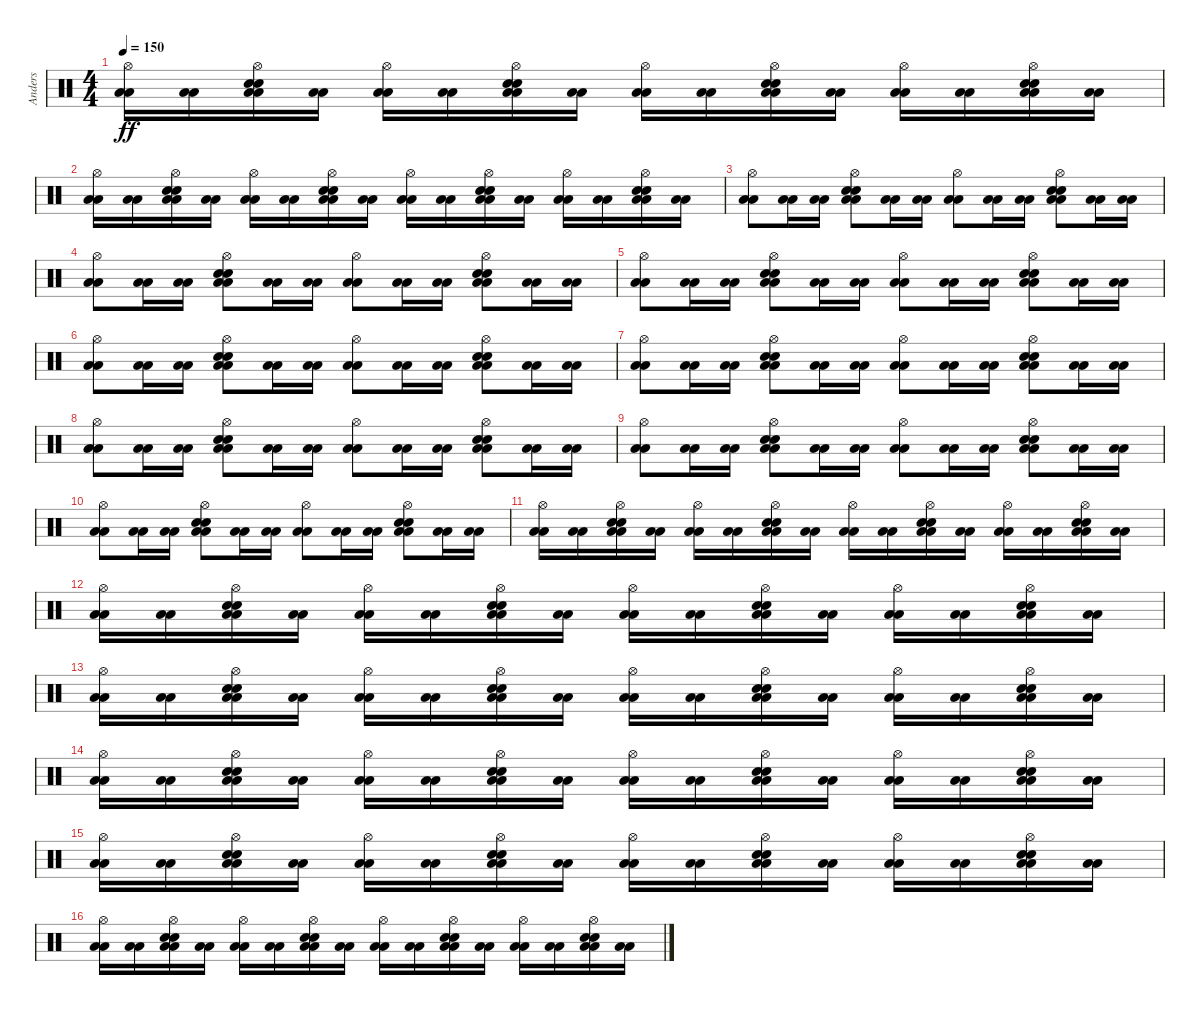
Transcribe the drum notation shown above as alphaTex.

\track ("Anders" "Anders") {instrument percussion}
\staff {score}
\articulation defaults
\ts (4 4)
\tempo 150
\clef neutral
\ks c
("Hi-Hat (open)" "Low Floor Tom (hit)" "Low Floor Tom (hit)").16{dy ff} ("Low Floor Tom (hit)" "Low Floor Tom (hit)").16 ("Hi-Hat (open)" "Electric Snare (hit)" "Electric Snare (hit)" "Low Floor Tom (hit)" "Low Floor Tom (hit)").16 ("Low Floor Tom (hit)" "Low Floor Tom (hit)").16 ("Hi-Hat (open)" "Low Floor Tom (hit)" "Low Floor Tom (hit)").16 ("Low Floor Tom (hit)" "Low Floor Tom (hit)").16 ("Hi-Hat (open)" "Electric Snare (hit)" "Electric Snare (hit)" "Low Floor Tom (hit)" "Low Floor Tom (hit)").16 ("Low Floor Tom (hit)" "Low Floor Tom (hit)").16 ("Hi-Hat (open)" "Low Floor Tom (hit)" "Low Floor Tom (hit)").16 ("Low Floor Tom (hit)" "Low Floor Tom (hit)").16 ("Hi-Hat (open)" "Electric Snare (hit)" "Electric Snare (hit)" "Low Floor Tom (hit)" "Low Floor Tom (hit)").16 ("Low Floor Tom (hit)" "Low Floor Tom (hit)").16 ("Hi-Hat (open)" "Low Floor Tom (hit)" "Low Floor Tom (hit)").16 ("Low Floor Tom (hit)" "Low Floor Tom (hit)").16 ("Hi-Hat (open)" "Electric Snare (hit)" "Electric Snare (hit)" "Low Floor Tom (hit)" "Low Floor Tom (hit)").16 ("Low Floor Tom (hit)" "Low Floor Tom (hit)").16 |
("Hi-Hat (open)" "Low Floor Tom (hit)" "Low Floor Tom (hit)").16 ("Low Floor Tom (hit)" "Low Floor Tom (hit)").16 ("Hi-Hat (open)" "Electric Snare (hit)" "Electric Snare (hit)" "Low Floor Tom (hit)" "Low Floor Tom (hit)").16 ("Low Floor Tom (hit)" "Low Floor Tom (hit)").16 ("Hi-Hat (open)" "Low Floor Tom (hit)" "Low Floor Tom (hit)").16 ("Low Floor Tom (hit)" "Low Floor Tom (hit)").16 ("Hi-Hat (open)" "Electric Snare (hit)" "Electric Snare (hit)" "Low Floor Tom (hit)" "Low Floor Tom (hit)").16 ("Low Floor Tom (hit)" "Low Floor Tom (hit)").16 ("Hi-Hat (open)" "Low Floor Tom (hit)" "Low Floor Tom (hit)").16 ("Low Floor Tom (hit)" "Low Floor Tom (hit)").16 ("Hi-Hat (open)" "Electric Snare (hit)" "Electric Snare (hit)" "Low Floor Tom (hit)" "Low Floor Tom (hit)").16 ("Low Floor Tom (hit)" "Low Floor Tom (hit)").16 ("Hi-Hat (open)" "Low Floor Tom (hit)" "Low Floor Tom (hit)").16 ("Low Floor Tom (hit)" "Low Floor Tom (hit)").16 ("Hi-Hat (open)" "Electric Snare (hit)" "Electric Snare (hit)" "Low Floor Tom (hit)" "Low Floor Tom (hit)").16 ("Low Floor Tom (hit)" "Low Floor Tom (hit)").16 |
("Hi-Hat (open)" "Low Floor Tom (hit)" "Low Floor Tom (hit)").8 ("Low Floor Tom (hit)" "Low Floor Tom (hit)").16 ("Low Floor Tom (hit)" "Low Floor Tom (hit)").16 ("Hi-Hat (open)" "Electric Snare (hit)" "Electric Snare (hit)" "Low Floor Tom (hit)" "Low Floor Tom (hit)").8 ("Low Floor Tom (hit)" "Low Floor Tom (hit)").16 ("Low Floor Tom (hit)" "Low Floor Tom (hit)").16 ("Hi-Hat (open)" "Low Floor Tom (hit)" "Low Floor Tom (hit)").8 ("Low Floor Tom (hit)" "Low Floor Tom (hit)").16 ("Low Floor Tom (hit)" "Low Floor Tom (hit)").16 ("Hi-Hat (open)" "Electric Snare (hit)" "Electric Snare (hit)" "Low Floor Tom (hit)" "Low Floor Tom (hit)").8 ("Low Floor Tom (hit)" "Low Floor Tom (hit)").16 ("Low Floor Tom (hit)" "Low Floor Tom (hit)").16 |
("Hi-Hat (open)" "Low Floor Tom (hit)" "Low Floor Tom (hit)").8 ("Low Floor Tom (hit)" "Low Floor Tom (hit)").16 ("Low Floor Tom (hit)" "Low Floor Tom (hit)").16 ("Hi-Hat (open)" "Electric Snare (hit)" "Electric Snare (hit)" "Low Floor Tom (hit)" "Low Floor Tom (hit)").8 ("Low Floor Tom (hit)" "Low Floor Tom (hit)").16 ("Low Floor Tom (hit)" "Low Floor Tom (hit)").16 ("Hi-Hat (open)" "Low Floor Tom (hit)" "Low Floor Tom (hit)").8 ("Low Floor Tom (hit)" "Low Floor Tom (hit)").16 ("Low Floor Tom (hit)" "Low Floor Tom (hit)").16 ("Hi-Hat (open)" "Electric Snare (hit)" "Electric Snare (hit)" "Low Floor Tom (hit)" "Low Floor Tom (hit)").8 ("Low Floor Tom (hit)" "Low Floor Tom (hit)").16 ("Low Floor Tom (hit)" "Low Floor Tom (hit)").16 |
("Hi-Hat (open)" "Low Floor Tom (hit)" "Low Floor Tom (hit)").8 ("Low Floor Tom (hit)" "Low Floor Tom (hit)").16 ("Low Floor Tom (hit)" "Low Floor Tom (hit)").16 ("Hi-Hat (open)" "Electric Snare (hit)" "Electric Snare (hit)" "Low Floor Tom (hit)" "Low Floor Tom (hit)").8 ("Low Floor Tom (hit)" "Low Floor Tom (hit)").16 ("Low Floor Tom (hit)" "Low Floor Tom (hit)").16 ("Hi-Hat (open)" "Low Floor Tom (hit)" "Low Floor Tom (hit)").8 ("Low Floor Tom (hit)" "Low Floor Tom (hit)").16 ("Low Floor Tom (hit)" "Low Floor Tom (hit)").16 ("Hi-Hat (open)" "Electric Snare (hit)" "Electric Snare (hit)" "Low Floor Tom (hit)" "Low Floor Tom (hit)").8 ("Low Floor Tom (hit)" "Low Floor Tom (hit)").16 ("Low Floor Tom (hit)" "Low Floor Tom (hit)").16 |
("Hi-Hat (open)" "Low Floor Tom (hit)" "Low Floor Tom (hit)").8 ("Low Floor Tom (hit)" "Low Floor Tom (hit)").16 ("Low Floor Tom (hit)" "Low Floor Tom (hit)").16 ("Hi-Hat (open)" "Electric Snare (hit)" "Electric Snare (hit)" "Low Floor Tom (hit)" "Low Floor Tom (hit)").8 ("Low Floor Tom (hit)" "Low Floor Tom (hit)").16 ("Low Floor Tom (hit)" "Low Floor Tom (hit)").16 ("Hi-Hat (open)" "Low Floor Tom (hit)" "Low Floor Tom (hit)").8 ("Low Floor Tom (hit)" "Low Floor Tom (hit)").16 ("Low Floor Tom (hit)" "Low Floor Tom (hit)").16 ("Hi-Hat (open)" "Electric Snare (hit)" "Electric Snare (hit)" "Low Floor Tom (hit)" "Low Floor Tom (hit)").8 ("Low Floor Tom (hit)" "Low Floor Tom (hit)").16 ("Low Floor Tom (hit)" "Low Floor Tom (hit)").16 |
("Hi-Hat (open)" "Low Floor Tom (hit)" "Low Floor Tom (hit)").8 ("Low Floor Tom (hit)" "Low Floor Tom (hit)").16 ("Low Floor Tom (hit)" "Low Floor Tom (hit)").16 ("Hi-Hat (open)" "Electric Snare (hit)" "Electric Snare (hit)" "Low Floor Tom (hit)" "Low Floor Tom (hit)").8 ("Low Floor Tom (hit)" "Low Floor Tom (hit)").16 ("Low Floor Tom (hit)" "Low Floor Tom (hit)").16 ("Hi-Hat (open)" "Low Floor Tom (hit)" "Low Floor Tom (hit)").8 ("Low Floor Tom (hit)" "Low Floor Tom (hit)").16 ("Low Floor Tom (hit)" "Low Floor Tom (hit)").16 ("Hi-Hat (open)" "Electric Snare (hit)" "Electric Snare (hit)" "Low Floor Tom (hit)" "Low Floor Tom (hit)").8 ("Low Floor Tom (hit)" "Low Floor Tom (hit)").16 ("Low Floor Tom (hit)" "Low Floor Tom (hit)").16 |
("Hi-Hat (open)" "Low Floor Tom (hit)" "Low Floor Tom (hit)").8 ("Low Floor Tom (hit)" "Low Floor Tom (hit)").16 ("Low Floor Tom (hit)" "Low Floor Tom (hit)").16 ("Hi-Hat (open)" "Electric Snare (hit)" "Electric Snare (hit)" "Low Floor Tom (hit)" "Low Floor Tom (hit)").8 ("Low Floor Tom (hit)" "Low Floor Tom (hit)").16 ("Low Floor Tom (hit)" "Low Floor Tom (hit)").16 ("Hi-Hat (open)" "Low Floor Tom (hit)" "Low Floor Tom (hit)").8 ("Low Floor Tom (hit)" "Low Floor Tom (hit)").16 ("Low Floor Tom (hit)" "Low Floor Tom (hit)").16 ("Hi-Hat (open)" "Electric Snare (hit)" "Electric Snare (hit)" "Low Floor Tom (hit)" "Low Floor Tom (hit)").8 ("Low Floor Tom (hit)" "Low Floor Tom (hit)").16 ("Low Floor Tom (hit)" "Low Floor Tom (hit)").16 |
("Hi-Hat (open)" "Low Floor Tom (hit)" "Low Floor Tom (hit)").8 ("Low Floor Tom (hit)" "Low Floor Tom (hit)").16 ("Low Floor Tom (hit)" "Low Floor Tom (hit)").16 ("Hi-Hat (open)" "Electric Snare (hit)" "Electric Snare (hit)" "Low Floor Tom (hit)" "Low Floor Tom (hit)").8 ("Low Floor Tom (hit)" "Low Floor Tom (hit)").16 ("Low Floor Tom (hit)" "Low Floor Tom (hit)").16 ("Hi-Hat (open)" "Low Floor Tom (hit)" "Low Floor Tom (hit)").8 ("Low Floor Tom (hit)" "Low Floor Tom (hit)").16 ("Low Floor Tom (hit)" "Low Floor Tom (hit)").16 ("Hi-Hat (open)" "Electric Snare (hit)" "Electric Snare (hit)" "Low Floor Tom (hit)" "Low Floor Tom (hit)").8 ("Low Floor Tom (hit)" "Low Floor Tom (hit)").16 ("Low Floor Tom (hit)" "Low Floor Tom (hit)").16 |
("Hi-Hat (open)" "Low Floor Tom (hit)" "Low Floor Tom (hit)").8 ("Low Floor Tom (hit)" "Low Floor Tom (hit)").16 ("Low Floor Tom (hit)" "Low Floor Tom (hit)").16 ("Hi-Hat (open)" "Electric Snare (hit)" "Electric Snare (hit)" "Low Floor Tom (hit)" "Low Floor Tom (hit)").8 ("Low Floor Tom (hit)" "Low Floor Tom (hit)").16 ("Low Floor Tom (hit)" "Low Floor Tom (hit)").16 ("Hi-Hat (open)" "Low Floor Tom (hit)" "Low Floor Tom (hit)").8 ("Low Floor Tom (hit)" "Low Floor Tom (hit)").16 ("Low Floor Tom (hit)" "Low Floor Tom (hit)").16 ("Hi-Hat (open)" "Electric Snare (hit)" "Electric Snare (hit)" "Low Floor Tom (hit)" "Low Floor Tom (hit)").8 ("Low Floor Tom (hit)" "Low Floor Tom (hit)").16 ("Low Floor Tom (hit)" "Low Floor Tom (hit)").16 |
("Hi-Hat (open)" "Low Floor Tom (hit)" "Low Floor Tom (hit)").16 ("Low Floor Tom (hit)" "Low Floor Tom (hit)").16 ("Hi-Hat (open)" "Electric Snare (hit)" "Electric Snare (hit)" "Low Floor Tom (hit)" "Low Floor Tom (hit)").16 ("Low Floor Tom (hit)" "Low Floor Tom (hit)").16 ("Hi-Hat (open)" "Low Floor Tom (hit)" "Low Floor Tom (hit)").16 ("Low Floor Tom (hit)" "Low Floor Tom (hit)").16 ("Hi-Hat (open)" "Electric Snare (hit)" "Electric Snare (hit)" "Low Floor Tom (hit)" "Low Floor Tom (hit)").16 ("Low Floor Tom (hit)" "Low Floor Tom (hit)").16 ("Hi-Hat (open)" "Low Floor Tom (hit)" "Low Floor Tom (hit)").16 ("Low Floor Tom (hit)" "Low Floor Tom (hit)").16 ("Hi-Hat (open)" "Electric Snare (hit)" "Electric Snare (hit)" "Low Floor Tom (hit)" "Low Floor Tom (hit)").16 ("Low Floor Tom (hit)" "Low Floor Tom (hit)").16 ("Hi-Hat (open)" "Low Floor Tom (hit)" "Low Floor Tom (hit)").16 ("Low Floor Tom (hit)" "Low Floor Tom (hit)").16 ("Hi-Hat (open)" "Electric Snare (hit)" "Electric Snare (hit)" "Low Floor Tom (hit)" "Low Floor Tom (hit)").16 ("Low Floor Tom (hit)" "Low Floor Tom (hit)").16 |
("Hi-Hat (open)" "Low Floor Tom (hit)" "Low Floor Tom (hit)").16 ("Low Floor Tom (hit)" "Low Floor Tom (hit)").16 ("Hi-Hat (open)" "Electric Snare (hit)" "Electric Snare (hit)" "Low Floor Tom (hit)" "Low Floor Tom (hit)").16 ("Low Floor Tom (hit)" "Low Floor Tom (hit)").16 ("Hi-Hat (open)" "Low Floor Tom (hit)" "Low Floor Tom (hit)").16 ("Low Floor Tom (hit)" "Low Floor Tom (hit)").16 ("Hi-Hat (open)" "Electric Snare (hit)" "Electric Snare (hit)" "Low Floor Tom (hit)" "Low Floor Tom (hit)").16 ("Low Floor Tom (hit)" "Low Floor Tom (hit)").16 ("Hi-Hat (open)" "Low Floor Tom (hit)" "Low Floor Tom (hit)").16 ("Low Floor Tom (hit)" "Low Floor Tom (hit)").16 ("Hi-Hat (open)" "Electric Snare (hit)" "Electric Snare (hit)" "Low Floor Tom (hit)" "Low Floor Tom (hit)").16 ("Low Floor Tom (hit)" "Low Floor Tom (hit)").16 ("Hi-Hat (open)" "Low Floor Tom (hit)" "Low Floor Tom (hit)").16 ("Low Floor Tom (hit)" "Low Floor Tom (hit)").16 ("Hi-Hat (open)" "Electric Snare (hit)" "Electric Snare (hit)" "Low Floor Tom (hit)" "Low Floor Tom (hit)").16 ("Low Floor Tom (hit)" "Low Floor Tom (hit)").16 |
("Hi-Hat (open)" "Low Floor Tom (hit)" "Low Floor Tom (hit)").16 ("Low Floor Tom (hit)" "Low Floor Tom (hit)").16 ("Hi-Hat (open)" "Electric Snare (hit)" "Electric Snare (hit)" "Low Floor Tom (hit)" "Low Floor Tom (hit)").16 ("Low Floor Tom (hit)" "Low Floor Tom (hit)").16 ("Hi-Hat (open)" "Low Floor Tom (hit)" "Low Floor Tom (hit)").16 ("Low Floor Tom (hit)" "Low Floor Tom (hit)").16 ("Hi-Hat (open)" "Electric Snare (hit)" "Electric Snare (hit)" "Low Floor Tom (hit)" "Low Floor Tom (hit)").16 ("Low Floor Tom (hit)" "Low Floor Tom (hit)").16 ("Hi-Hat (open)" "Low Floor Tom (hit)" "Low Floor Tom (hit)").16 ("Low Floor Tom (hit)" "Low Floor Tom (hit)").16 ("Hi-Hat (open)" "Electric Snare (hit)" "Electric Snare (hit)" "Low Floor Tom (hit)" "Low Floor Tom (hit)").16 ("Low Floor Tom (hit)" "Low Floor Tom (hit)").16 ("Hi-Hat (open)" "Low Floor Tom (hit)" "Low Floor Tom (hit)").16 ("Low Floor Tom (hit)" "Low Floor Tom (hit)").16 ("Hi-Hat (open)" "Electric Snare (hit)" "Electric Snare (hit)" "Low Floor Tom (hit)" "Low Floor Tom (hit)").16 ("Low Floor Tom (hit)" "Low Floor Tom (hit)").16 |
("Hi-Hat (open)" "Low Floor Tom (hit)" "Low Floor Tom (hit)").16 ("Low Floor Tom (hit)" "Low Floor Tom (hit)").16 ("Hi-Hat (open)" "Electric Snare (hit)" "Electric Snare (hit)" "Low Floor Tom (hit)" "Low Floor Tom (hit)").16 ("Low Floor Tom (hit)" "Low Floor Tom (hit)").16 ("Hi-Hat (open)" "Low Floor Tom (hit)" "Low Floor Tom (hit)").16 ("Low Floor Tom (hit)" "Low Floor Tom (hit)").16 ("Hi-Hat (open)" "Electric Snare (hit)" "Electric Snare (hit)" "Low Floor Tom (hit)" "Low Floor Tom (hit)").16 ("Low Floor Tom (hit)" "Low Floor Tom (hit)").16 ("Hi-Hat (open)" "Low Floor Tom (hit)" "Low Floor Tom (hit)").16 ("Low Floor Tom (hit)" "Low Floor Tom (hit)").16 ("Hi-Hat (open)" "Electric Snare (hit)" "Electric Snare (hit)" "Low Floor Tom (hit)" "Low Floor Tom (hit)").16 ("Low Floor Tom (hit)" "Low Floor Tom (hit)").16 ("Hi-Hat (open)" "Low Floor Tom (hit)" "Low Floor Tom (hit)").16 ("Low Floor Tom (hit)" "Low Floor Tom (hit)").16 ("Hi-Hat (open)" "Electric Snare (hit)" "Electric Snare (hit)" "Low Floor Tom (hit)" "Low Floor Tom (hit)").16 ("Low Floor Tom (hit)" "Low Floor Tom (hit)").16 |
("Hi-Hat (open)" "Low Floor Tom (hit)" "Low Floor Tom (hit)").16 ("Low Floor Tom (hit)" "Low Floor Tom (hit)").16 ("Hi-Hat (open)" "Electric Snare (hit)" "Electric Snare (hit)" "Low Floor Tom (hit)" "Low Floor Tom (hit)").16 ("Low Floor Tom (hit)" "Low Floor Tom (hit)").16 ("Hi-Hat (open)" "Low Floor Tom (hit)" "Low Floor Tom (hit)").16 ("Low Floor Tom (hit)" "Low Floor Tom (hit)").16 ("Hi-Hat (open)" "Electric Snare (hit)" "Electric Snare (hit)" "Low Floor Tom (hit)" "Low Floor Tom (hit)").16 ("Low Floor Tom (hit)" "Low Floor Tom (hit)").16 ("Hi-Hat (open)" "Low Floor Tom (hit)" "Low Floor Tom (hit)").16 ("Low Floor Tom (hit)" "Low Floor Tom (hit)").16 ("Hi-Hat (open)" "Electric Snare (hit)" "Electric Snare (hit)" "Low Floor Tom (hit)" "Low Floor Tom (hit)").16 ("Low Floor Tom (hit)" "Low Floor Tom (hit)").16 ("Hi-Hat (open)" "Low Floor Tom (hit)" "Low Floor Tom (hit)").16 ("Low Floor Tom (hit)" "Low Floor Tom (hit)").16 ("Hi-Hat (open)" "Electric Snare (hit)" "Electric Snare (hit)" "Low Floor Tom (hit)" "Low Floor Tom (hit)").16 ("Low Floor Tom (hit)" "Low Floor Tom (hit)").16 |
("Hi-Hat (open)" "Low Floor Tom (hit)" "Low Floor Tom (hit)").16 ("Low Floor Tom (hit)" "Low Floor Tom (hit)").16 ("Hi-Hat (open)" "Electric Snare (hit)" "Electric Snare (hit)" "Low Floor Tom (hit)" "Low Floor Tom (hit)").16 ("Low Floor Tom (hit)" "Low Floor Tom (hit)").16 ("Hi-Hat (open)" "Low Floor Tom (hit)" "Low Floor Tom (hit)").16 ("Low Floor Tom (hit)" "Low Floor Tom (hit)").16 ("Hi-Hat (open)" "Electric Snare (hit)" "Electric Snare (hit)" "Low Floor Tom (hit)" "Low Floor Tom (hit)").16 ("Low Floor Tom (hit)" "Low Floor Tom (hit)").16 ("Hi-Hat (open)" "Low Floor Tom (hit)" "Low Floor Tom (hit)").16 ("Low Floor Tom (hit)" "Low Floor Tom (hit)").16 ("Hi-Hat (open)" "Electric Snare (hit)" "Electric Snare (hit)" "Low Floor Tom (hit)" "Low Floor Tom (hit)").16 ("Low Floor Tom (hit)" "Low Floor Tom (hit)").16 ("Hi-Hat (open)" "Low Floor Tom (hit)" "Low Floor Tom (hit)").16 ("Low Floor Tom (hit)" "Low Floor Tom (hit)").16 ("Hi-Hat (open)" "Electric Snare (hit)" "Electric Snare (hit)" "Low Floor Tom (hit)" "Low Floor Tom (hit)").16 ("Low Floor Tom (hit)" "Low Floor Tom (hit)").16
